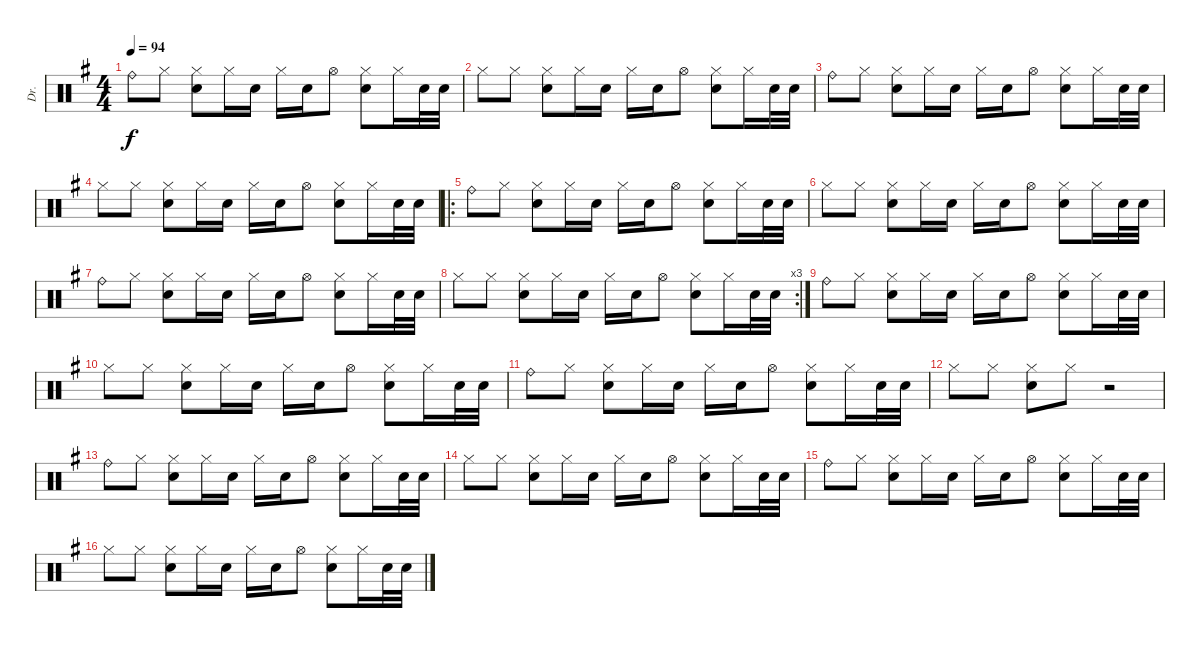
\track ("Dr." "Dr.") {instrument percussion}
\staff {score}
\articulation defaults
\ts (4 4)
\tempo 94
\clef neutral
\ks g "Ride (bell)".8{dy f} "Hi-Hat (closed)".8
("Hi-Hat (closed)" "Electric Snare (hit)").8 "Hi-Hat (closed)".16 "Electric Snare (hit)".16 "Hi-Hat (closed)".16 "Electric Snare (hit)".16 "Hi-Hat (open)".8 ("Hi-Hat (closed)" "Electric Snare (hit)").8 "Hi-Hat (closed)".16 "Electric Snare (hit)".32 "Electric Snare (hit)".32 |
"Hi-Hat (closed)".8 "Hi-Hat (closed)".8 ("Hi-Hat (closed)" "Electric Snare (hit)").8 "Hi-Hat (closed)".16 "Electric Snare (hit)".16 "Hi-Hat (closed)".16 "Electric Snare (hit)".16 "Hi-Hat (open)".8 ("Hi-Hat (closed)" "Electric Snare (hit)").8 "Hi-Hat (closed)".16 "Electric Snare (hit)".32 "Electric Snare (hit)".32 |
"Ride (bell)".8 "Hi-Hat (closed)".8 ("Hi-Hat (closed)" "Electric Snare (hit)").8 "Hi-Hat (closed)".16 "Electric Snare (hit)".16 "Hi-Hat (closed)".16 "Electric Snare (hit)".16 "Hi-Hat (open)".8 ("Hi-Hat (closed)" "Electric Snare (hit)").8 "Hi-Hat (closed)".16 "Electric Snare (hit)".32 "Electric Snare (hit)".32 |
"Hi-Hat (closed)".8 "Hi-Hat (closed)".8 ("Hi-Hat (closed)" "Electric Snare (hit)").8 "Hi-Hat (closed)".16 "Electric Snare (hit)".16 "Hi-Hat (closed)".16 "Electric Snare (hit)".16 "Hi-Hat (open)".8 ("Hi-Hat (closed)" "Electric Snare (hit)").8 "Hi-Hat (closed)".16 "Electric Snare (hit)".32 "Electric Snare (hit)".32 |
\ro "Ride (bell)".8 "Hi-Hat (closed)".8
("Hi-Hat (closed)" "Electric Snare (hit)").8 "Hi-Hat (closed)".16 "Electric Snare (hit)".16 "Hi-Hat (closed)".16 "Electric Snare (hit)".16 "Hi-Hat (open)".8 ("Hi-Hat (closed)" "Electric Snare (hit)").8 "Hi-Hat (closed)".16 "Electric Snare (hit)".32 "Electric Snare (hit)".32 |
"Hi-Hat (closed)".8 "Hi-Hat (closed)".8 ("Hi-Hat (closed)" "Electric Snare (hit)").8 "Hi-Hat (closed)".16 "Electric Snare (hit)".16 "Hi-Hat (closed)".16 "Electric Snare (hit)".16 "Hi-Hat (open)".8 ("Hi-Hat (closed)" "Electric Snare (hit)").8 "Hi-Hat (closed)".16 "Electric Snare (hit)".32 "Electric Snare (hit)".32 |
"Ride (bell)".8 "Hi-Hat (closed)".8 ("Hi-Hat (closed)" "Electric Snare (hit)").8 "Hi-Hat (closed)".16 "Electric Snare (hit)".16 "Hi-Hat (closed)".16 "Electric Snare (hit)".16 "Hi-Hat (open)".8 ("Hi-Hat (closed)" "Electric Snare (hit)").8 "Hi-Hat (closed)".16 "Electric Snare (hit)".32 "Electric Snare (hit)".32 |
\rc 3 "Hi-Hat (closed)".8 "Hi-Hat (closed)".8
("Hi-Hat (closed)" "Electric Snare (hit)").8 "Hi-Hat (closed)".16 "Electric Snare (hit)".16 "Hi-Hat (closed)".16 "Electric Snare (hit)".16 "Hi-Hat (open)".8 ("Hi-Hat (closed)" "Electric Snare (hit)").8 "Hi-Hat (closed)".16 "Electric Snare (hit)".32 "Electric Snare (hit)".32 |
"Ride (bell)".8 "Hi-Hat (closed)".8 ("Hi-Hat (closed)" "Electric Snare (hit)").8 "Hi-Hat (closed)".16 "Electric Snare (hit)".16 "Hi-Hat (closed)".16 "Electric Snare (hit)".16 "Hi-Hat (open)".8 ("Hi-Hat (closed)" "Electric Snare (hit)").8 "Hi-Hat (closed)".16 "Electric Snare (hit)".32 "Electric Snare (hit)".32 |
"Hi-Hat (closed)".8 "Hi-Hat (closed)".8 ("Hi-Hat (closed)" "Electric Snare (hit)").8 "Hi-Hat (closed)".16 "Electric Snare (hit)".16 "Hi-Hat (closed)".16 "Electric Snare (hit)".16 "Hi-Hat (open)".8 ("Hi-Hat (closed)" "Electric Snare (hit)").8 "Hi-Hat (closed)".16 "Electric Snare (hit)".32 "Electric Snare (hit)".32 |
"Ride (bell)".8 "Hi-Hat (closed)".8 ("Hi-Hat (closed)" "Electric Snare (hit)").8 "Hi-Hat (closed)".16 "Electric Snare (hit)".16 "Hi-Hat (closed)".16 "Electric Snare (hit)".16 "Hi-Hat (open)".8 ("Hi-Hat (closed)" "Electric Snare (hit)").8 "Hi-Hat (closed)".16 "Electric Snare (hit)".32 "Electric Snare (hit)".32 |
"Hi-Hat (closed)".8 "Hi-Hat (closed)".8 ("Hi-Hat (closed)" "Electric Snare (hit)").8 "Hi-Hat (closed)".8 r.2 |
"Ride (bell)".8 "Hi-Hat (closed)".8 ("Hi-Hat (closed)" "Electric Snare (hit)").8 "Hi-Hat (closed)".16 "Electric Snare (hit)".16 "Hi-Hat (closed)".16 "Electric Snare (hit)".16 "Hi-Hat (open)".8 ("Hi-Hat (closed)" "Electric Snare (hit)").8 "Hi-Hat (closed)".16 "Electric Snare (hit)".32 "Electric Snare (hit)".32 |
"Hi-Hat (closed)".8 "Hi-Hat (closed)".8 ("Hi-Hat (closed)" "Electric Snare (hit)").8 "Hi-Hat (closed)".16 "Electric Snare (hit)".16 "Hi-Hat (closed)".16 "Electric Snare (hit)".16 "Hi-Hat (open)".8 ("Hi-Hat (closed)" "Electric Snare (hit)").8 "Hi-Hat (closed)".16 "Electric Snare (hit)".32 "Electric Snare (hit)".32 |
"Ride (bell)".8 "Hi-Hat (closed)".8 ("Hi-Hat (closed)" "Electric Snare (hit)").8 "Hi-Hat (closed)".16 "Electric Snare (hit)".16 "Hi-Hat (closed)".16 "Electric Snare (hit)".16 "Hi-Hat (open)".8 ("Hi-Hat (closed)" "Electric Snare (hit)").8 "Hi-Hat (closed)".16 "Electric Snare (hit)".32 "Electric Snare (hit)".32 |
"Hi-Hat (closed)".8 "Hi-Hat (closed)".8 ("Hi-Hat (closed)" "Electric Snare (hit)").8 "Hi-Hat (closed)".16 "Electric Snare (hit)".16 "Hi-Hat (closed)".16 "Electric Snare (hit)".16 "Hi-Hat (open)".8 ("Hi-Hat (closed)" "Electric Snare (hit)").8 "Hi-Hat (closed)".16 "Electric Snare (hit)".32 "Electric Snare (hit)".32
